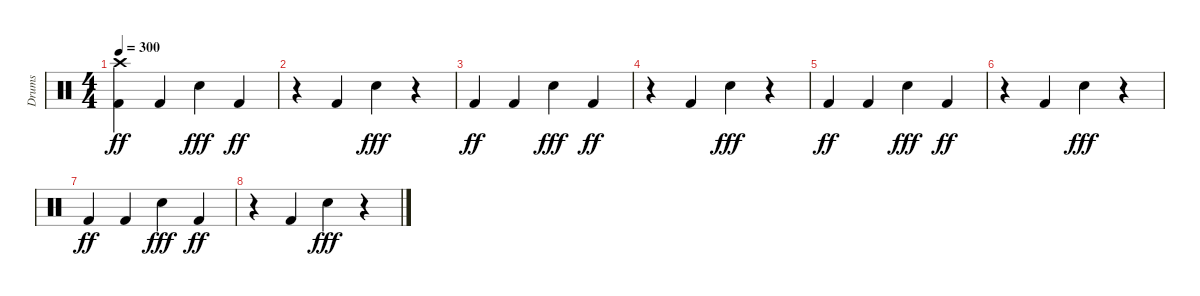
\track ("Drums" "Drums") {instrument percussion}
\staff {score}
\articulation defaults
\ts (4 4)
\tempo 300
\clef neutral
\ks c
("Crash high (hit)" "Kick (hit) 2").4{dy ff} "Kick (hit) 2".4 "Electric Snare (hit)".4{dy fff} "Kick (hit) 2".4{dy ff} |
r.4 "Kick (hit) 2".4 "Electric Snare (hit)".4{dy fff} r.4 |
"Kick (hit) 2".4{dy ff} "Kick (hit) 2".4 "Electric Snare (hit)".4{dy fff} "Kick (hit) 2".4{dy ff} |
r.4 "Kick (hit) 2".4 "Electric Snare (hit)".4{dy fff} r.4 |
"Kick (hit) 2".4{dy ff} "Kick (hit) 2".4 "Electric Snare (hit)".4{dy fff} "Kick (hit) 2".4{dy ff} |
r.4 "Kick (hit) 2".4 "Electric Snare (hit)".4{dy fff} r.4 |
"Kick (hit) 2".4{dy ff} "Kick (hit) 2".4 "Electric Snare (hit)".4{dy fff} "Kick (hit) 2".4{dy ff} |
r.4 "Kick (hit) 2".4 "Electric Snare (hit)".4{dy fff} r.4
